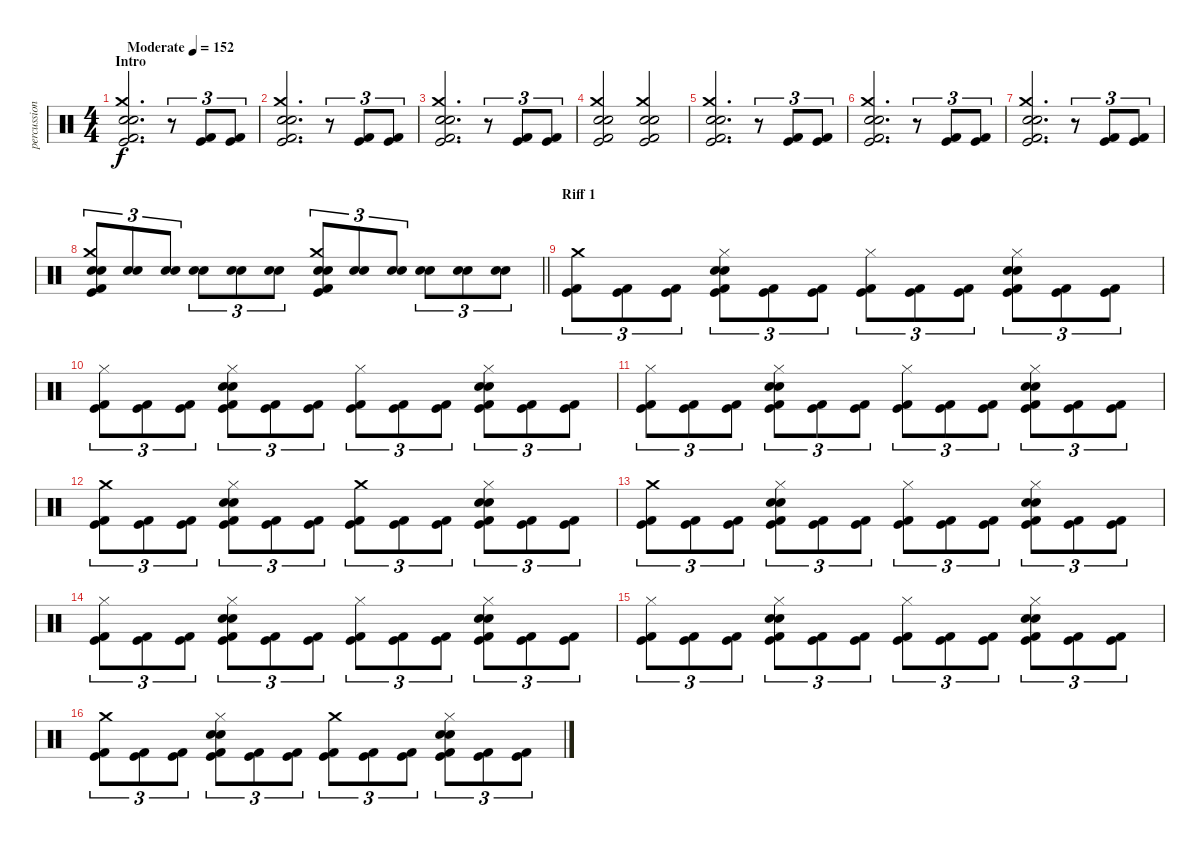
\track ("percussion" "percussion") {instrument percussion}
\staff {score}
\articulation defaults
\ts (4 4)
\section ("" "Intro")
\tempo (152 "Moderate")
\clef neutral
\ks c
("Electric Snare (hit)" "Snare (hit) 2" "Crash medium (hit)" "Kick (hit) 2" "Kick (hit)").2{d dy f} r.8{tu (3 2)} ("Kick (hit) 2" "Kick (hit)").8{tu (3 2)} ("Kick (hit) 2" "Kick (hit)").8{tu (3 2)} |
("Electric Snare (hit)" "Snare (hit) 2" "Crash medium (hit)" "Kick (hit) 2" "Kick (hit)").2{d} r.8{tu (3 2)} ("Kick (hit) 2" "Kick (hit)").8{tu (3 2)} ("Kick (hit) 2" "Kick (hit)").8{tu (3 2)} |
("Electric Snare (hit)" "Snare (hit) 2" "Crash medium (hit)" "Kick (hit) 2" "Kick (hit)").2{d} r.8{tu (3 2)} ("Kick (hit) 2" "Kick (hit)").8{tu (3 2)} ("Kick (hit) 2" "Kick (hit)").8{tu (3 2)} |
("Electric Snare (hit)" "Snare (hit) 2" "Crash medium (hit)" "Kick (hit) 2" "Kick (hit)").2 ("Electric Snare (hit)" "Snare (hit) 2" "Crash medium (hit)" "Kick (hit) 2" "Kick (hit)").2 |
("Electric Snare (hit)" "Snare (hit) 2" "Crash medium (hit)" "Kick (hit) 2" "Kick (hit)").2{d} r.8{tu (3 2)} ("Kick (hit) 2" "Kick (hit)").8{tu (3 2)} ("Kick (hit) 2" "Kick (hit)").8{tu (3 2)} |
("Electric Snare (hit)" "Snare (hit) 2" "Crash medium (hit)" "Kick (hit) 2" "Kick (hit)").2{d} r.8{tu (3 2)} ("Kick (hit) 2" "Kick (hit)").8{tu (3 2)} ("Kick (hit) 2" "Kick (hit)").8{tu (3 2)} |
("Electric Snare (hit)" "Snare (hit) 2" "Crash medium (hit)" "Kick (hit) 2" "Kick (hit)").2{d} r.8{tu (3 2)} ("Kick (hit) 2" "Kick (hit)").8{tu (3 2)} ("Kick (hit) 2" "Kick (hit)").8{tu (3 2)} |
\barLineRight lightlight
("Crash medium (hit)" "Electric Snare (hit)" "Snare (hit) 2" "Kick (hit)" "Kick (hit) 2").8{tu (3 2)} ("Electric Snare (hit)" "Snare (hit) 2").8{tu (3 2)} ("Electric Snare (hit)" "Snare (hit) 2").8{tu (3 2)} ("Electric Snare (hit)" "Snare (hit) 2").8{tu (3 2)} ("Electric Snare (hit)" "Snare (hit) 2").8{tu (3 2)} ("Electric Snare (hit)" "Snare (hit) 2").8{tu (3 2)} ("Crash medium (hit)" "Electric Snare (hit)" "Snare (hit) 2" "Kick (hit) 2" "Kick (hit)").8{tu (3 2)} ("Electric Snare (hit)" "Snare (hit) 2").8{tu (3 2)} ("Electric Snare (hit)" "Snare (hit) 2").8{tu (3 2)} ("Electric Snare (hit)" "Snare (hit) 2").8{tu (3 2)} ("Electric Snare (hit)" "Snare (hit) 2").8{tu (3 2)} ("Electric Snare (hit)" "Snare (hit) 2").8{tu (3 2)} |
\section ("" "Riff 1")
("Crash medium (hit)" "Kick (hit)" "Kick (hit) 2").8{tu (3 2)} ("Kick (hit)" "Kick (hit) 2").8{tu (3 2)} ("Kick (hit)" "Kick (hit) 2").8{tu (3 2)} ("Hi-Hat (closed)" "Electric Snare (hit)" "Snare (hit) 2" "Kick (hit)" "Kick (hit) 2").8{tu (3 2)} ("Kick (hit)" "Kick (hit) 2").8{tu (3 2)} ("Kick (hit)" "Kick (hit) 2").8{tu (3 2)} ("Hi-Hat (closed)" "Kick (hit)" "Kick (hit) 2").8{tu (3 2)} ("Kick (hit)" "Kick (hit) 2").8{tu (3 2)} ("Kick (hit)" "Kick (hit) 2").8{tu (3 2)} ("Hi-Hat (closed)" "Electric Snare (hit)" "Snare (hit) 2" "Kick (hit)" "Kick (hit) 2").8{tu (3 2)} ("Kick (hit)" "Kick (hit) 2").8{tu (3 2)} ("Kick (hit)" "Kick (hit) 2").8{tu (3 2)} |
("Hi-Hat (closed)" "Kick (hit)" "Kick (hit) 2").8{tu (3 2)} ("Kick (hit)" "Kick (hit) 2").8{tu (3 2)} ("Kick (hit)" "Kick (hit) 2").8{tu (3 2)} ("Hi-Hat (closed)" "Electric Snare (hit)" "Snare (hit) 2" "Kick (hit)" "Kick (hit) 2").8{tu (3 2)} ("Kick (hit)" "Kick (hit) 2").8{tu (3 2)} ("Kick (hit)" "Kick (hit) 2").8{tu (3 2)} ("Hi-Hat (closed)" "Kick (hit)" "Kick (hit) 2").8{tu (3 2)} ("Kick (hit)" "Kick (hit) 2").8{tu (3 2)} ("Kick (hit)" "Kick (hit) 2").8{tu (3 2)} ("Hi-Hat (closed)" "Electric Snare (hit)" "Snare (hit) 2" "Kick (hit)" "Kick (hit) 2").8{tu (3 2)} ("Kick (hit)" "Kick (hit) 2").8{tu (3 2)} ("Kick (hit)" "Kick (hit) 2").8{tu (3 2)} |
("Hi-Hat (closed)" "Kick (hit)" "Kick (hit) 2").8{tu (3 2)} ("Kick (hit)" "Kick (hit) 2").8{tu (3 2)} ("Kick (hit)" "Kick (hit) 2").8{tu (3 2)} ("Hi-Hat (closed)" "Electric Snare (hit)" "Snare (hit) 2" "Kick (hit)" "Kick (hit) 2").8{tu (3 2)} ("Kick (hit)" "Kick (hit) 2").8{tu (3 2)} ("Kick (hit)" "Kick (hit) 2").8{tu (3 2)} ("Hi-Hat (closed)" "Kick (hit)" "Kick (hit) 2").8{tu (3 2)} ("Kick (hit)" "Kick (hit) 2").8{tu (3 2)} ("Kick (hit)" "Kick (hit) 2").8{tu (3 2)} ("Hi-Hat (closed)" "Electric Snare (hit)" "Snare (hit) 2" "Kick (hit)" "Kick (hit) 2").8{tu (3 2)} ("Kick (hit)" "Kick (hit) 2").8{tu (3 2)} ("Kick (hit)" "Kick (hit) 2").8{tu (3 2)} |
("Crash medium (hit)" "Kick (hit)" "Kick (hit) 2").8{tu (3 2)} ("Kick (hit)" "Kick (hit) 2").8{tu (3 2)} ("Kick (hit)" "Kick (hit) 2").8{tu (3 2)} ("Hi-Hat (closed)" "Electric Snare (hit)" "Snare (hit) 2" "Kick (hit)" "Kick (hit) 2").8{tu (3 2)} ("Kick (hit)" "Kick (hit) 2").8{tu (3 2)} ("Kick (hit)" "Kick (hit) 2").8{tu (3 2)} ("Crash medium (hit)" "Kick (hit)" "Kick (hit) 2").8{tu (3 2)} ("Kick (hit)" "Kick (hit) 2").8{tu (3 2)} ("Kick (hit)" "Kick (hit) 2").8{tu (3 2)} ("Hi-Hat (closed)" "Electric Snare (hit)" "Snare (hit) 2" "Kick (hit)" "Kick (hit) 2").8{tu (3 2)} ("Kick (hit)" "Kick (hit) 2").8{tu (3 2)} ("Kick (hit)" "Kick (hit) 2").8{tu (3 2)} |
("Crash medium (hit)" "Kick (hit)" "Kick (hit) 2").8{tu (3 2)} ("Kick (hit)" "Kick (hit) 2").8{tu (3 2)} ("Kick (hit)" "Kick (hit) 2").8{tu (3 2)} ("Hi-Hat (closed)" "Electric Snare (hit)" "Snare (hit) 2" "Kick (hit)" "Kick (hit) 2").8{tu (3 2)} ("Kick (hit)" "Kick (hit) 2").8{tu (3 2)} ("Kick (hit)" "Kick (hit) 2").8{tu (3 2)} ("Hi-Hat (closed)" "Kick (hit)" "Kick (hit) 2").8{tu (3 2)} ("Kick (hit)" "Kick (hit) 2").8{tu (3 2)} ("Kick (hit)" "Kick (hit) 2").8{tu (3 2)} ("Hi-Hat (closed)" "Electric Snare (hit)" "Snare (hit) 2" "Kick (hit)" "Kick (hit) 2").8{tu (3 2)} ("Kick (hit)" "Kick (hit) 2").8{tu (3 2)} ("Kick (hit)" "Kick (hit) 2").8{tu (3 2)} |
("Hi-Hat (closed)" "Kick (hit)" "Kick (hit) 2").8{tu (3 2)} ("Kick (hit)" "Kick (hit) 2").8{tu (3 2)} ("Kick (hit)" "Kick (hit) 2").8{tu (3 2)} ("Hi-Hat (closed)" "Electric Snare (hit)" "Snare (hit) 2" "Kick (hit)" "Kick (hit) 2").8{tu (3 2)} ("Kick (hit)" "Kick (hit) 2").8{tu (3 2)} ("Kick (hit)" "Kick (hit) 2").8{tu (3 2)} ("Hi-Hat (closed)" "Kick (hit)" "Kick (hit) 2").8{tu (3 2)} ("Kick (hit)" "Kick (hit) 2").8{tu (3 2)} ("Kick (hit)" "Kick (hit) 2").8{tu (3 2)} ("Hi-Hat (closed)" "Electric Snare (hit)" "Snare (hit) 2" "Kick (hit)" "Kick (hit) 2").8{tu (3 2)} ("Kick (hit)" "Kick (hit) 2").8{tu (3 2)} ("Kick (hit)" "Kick (hit) 2").8{tu (3 2)} |
("Hi-Hat (closed)" "Kick (hit)" "Kick (hit) 2").8{tu (3 2)} ("Kick (hit)" "Kick (hit) 2").8{tu (3 2)} ("Kick (hit)" "Kick (hit) 2").8{tu (3 2)} ("Hi-Hat (closed)" "Electric Snare (hit)" "Snare (hit) 2" "Kick (hit)" "Kick (hit) 2").8{tu (3 2)} ("Kick (hit)" "Kick (hit) 2").8{tu (3 2)} ("Kick (hit)" "Kick (hit) 2").8{tu (3 2)} ("Hi-Hat (closed)" "Kick (hit)" "Kick (hit) 2").8{tu (3 2)} ("Kick (hit)" "Kick (hit) 2").8{tu (3 2)} ("Kick (hit)" "Kick (hit) 2").8{tu (3 2)} ("Hi-Hat (closed)" "Electric Snare (hit)" "Snare (hit) 2" "Kick (hit)" "Kick (hit) 2").8{tu (3 2)} ("Kick (hit)" "Kick (hit) 2").8{tu (3 2)} ("Kick (hit)" "Kick (hit) 2").8{tu (3 2)} |
("Crash medium (hit)" "Kick (hit)" "Kick (hit) 2").8{tu (3 2)} ("Kick (hit)" "Kick (hit) 2").8{tu (3 2)} ("Kick (hit)" "Kick (hit) 2").8{tu (3 2)} ("Hi-Hat (closed)" "Electric Snare (hit)" "Snare (hit) 2" "Kick (hit)" "Kick (hit) 2").8{tu (3 2)} ("Kick (hit)" "Kick (hit) 2").8{tu (3 2)} ("Kick (hit)" "Kick (hit) 2").8{tu (3 2)} ("Crash medium (hit)" "Kick (hit)" "Kick (hit) 2").8{tu (3 2)} ("Kick (hit)" "Kick (hit) 2").8{tu (3 2)} ("Kick (hit)" "Kick (hit) 2").8{tu (3 2)} ("Hi-Hat (closed)" "Electric Snare (hit)" "Snare (hit) 2" "Kick (hit)" "Kick (hit) 2").8{tu (3 2)} ("Kick (hit)" "Kick (hit) 2").8{tu (3 2)} ("Kick (hit)" "Kick (hit) 2").8{tu (3 2)}
